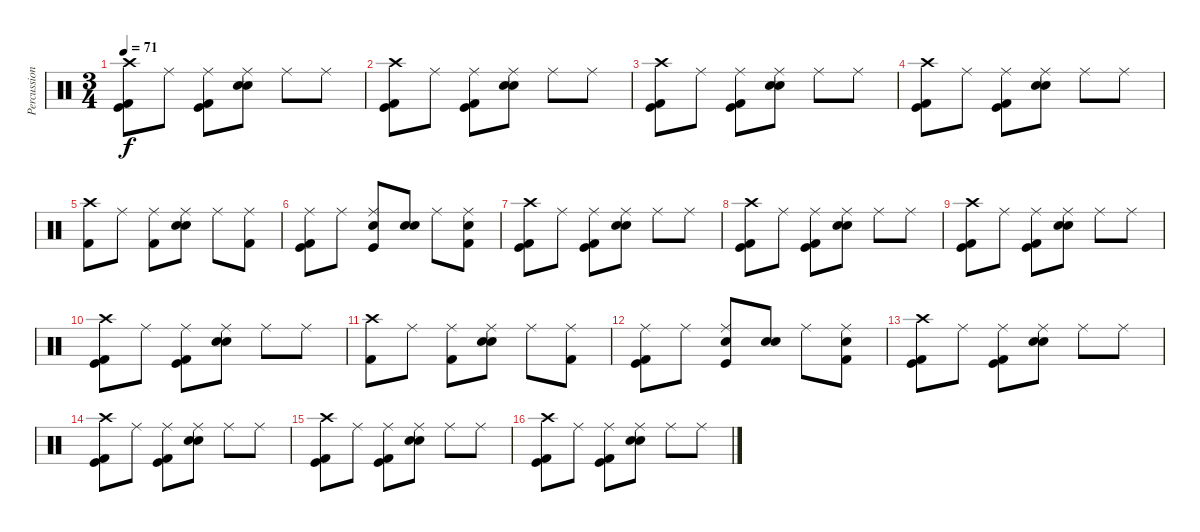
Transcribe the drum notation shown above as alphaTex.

\track ("Percussion" "Percussion") {instrument percussion}
\staff {score}
\articulation defaults
\ts (3 4)
\tempo 71
\clef neutral
\ks c
("Kick (hit)" "Kick (hit) 2" "Crash high (hit)").8{dy f} "Ride (middle)".8 ("Kick (hit) 2" "Kick (hit)" "Ride (middle)").8 ("Ride (middle)" "Electric Snare (hit)" "Snare (hit) 2").8 "Ride (middle)".8 "Ride (middle)".8 |
("Kick (hit)" "Kick (hit) 2" "Crash high (hit)").8 "Ride (middle)".8 ("Kick (hit) 2" "Kick (hit)" "Ride (middle)").8 ("Ride (middle)" "Electric Snare (hit)" "Snare (hit) 2").8 "Ride (middle)".8 "Ride (middle)".8 |
("Kick (hit)" "Kick (hit) 2" "Crash high (hit)").8 "Ride (middle)".8 ("Kick (hit) 2" "Kick (hit)" "Ride (middle)").8 ("Ride (middle)" "Electric Snare (hit)" "Snare (hit) 2").8 "Ride (middle)".8 "Ride (middle)".8 |
("Kick (hit)" "Kick (hit) 2" "Crash high (hit)").8 "Ride (middle)".8 ("Kick (hit) 2" "Kick (hit)" "Ride (middle)").8 ("Ride (middle)" "Electric Snare (hit)" "Snare (hit) 2").8 "Ride (middle)".8 "Ride (middle)".8 |
("Kick (hit) 2" "Crash high (hit)").8 "Ride (middle)".8 ("Kick (hit) 2" "Ride (middle)").8 ("Ride (middle)" "Electric Snare (hit)" "Snare (hit) 2").8 "Ride (middle)".8 ("Kick (hit) 2" "Ride (middle)").8 |
("Ride (middle)" "Kick (hit) 2" "Kick (hit)").8 "Ride (middle)".8 ("Kick (hit)" "Snare (hit) 2" "Ride (middle)").8 ("Electric Snare (hit)" "Snare (hit) 2").8 "Ride (middle)".8 ("Kick (hit) 2" "Snare (hit) 2" "Ride (middle)").8 |
("Kick (hit)" "Kick (hit) 2" "Crash high (hit)").8 "Ride (middle)".8 ("Kick (hit) 2" "Kick (hit)" "Ride (middle)").8 ("Ride (middle)" "Electric Snare (hit)" "Snare (hit) 2").8 "Ride (middle)".8 "Ride (middle)".8 |
("Kick (hit)" "Kick (hit) 2" "Crash high (hit)").8 "Ride (middle)".8 ("Kick (hit) 2" "Kick (hit)" "Ride (middle)").8 ("Ride (middle)" "Electric Snare (hit)" "Snare (hit) 2").8 "Ride (middle)".8 "Ride (middle)".8 |
("Kick (hit)" "Kick (hit) 2" "Crash high (hit)").8 "Ride (middle)".8 ("Kick (hit) 2" "Kick (hit)" "Ride (middle)").8 ("Ride (middle)" "Electric Snare (hit)" "Snare (hit) 2").8 "Ride (middle)".8 "Ride (middle)".8 |
("Kick (hit)" "Kick (hit) 2" "Crash high (hit)").8 "Ride (middle)".8 ("Kick (hit) 2" "Kick (hit)" "Ride (middle)").8 ("Ride (middle)" "Electric Snare (hit)" "Snare (hit) 2").8 "Ride (middle)".8 "Ride (middle)".8 |
("Kick (hit) 2" "Crash high (hit)").8 "Ride (middle)".8 ("Kick (hit) 2" "Ride (middle)").8 ("Ride (middle)" "Electric Snare (hit)" "Snare (hit) 2").8 "Ride (middle)".8 ("Kick (hit) 2" "Ride (middle)").8 |
("Ride (middle)" "Kick (hit) 2" "Kick (hit)").8 "Ride (middle)".8 ("Kick (hit)" "Snare (hit) 2" "Ride (middle)").8 ("Electric Snare (hit)" "Snare (hit) 2").8 "Ride (middle)".8 ("Kick (hit) 2" "Snare (hit) 2" "Ride (middle)").8 |
("Kick (hit)" "Kick (hit) 2" "Crash high (hit)").8 "Ride (middle)".8 ("Kick (hit) 2" "Kick (hit)" "Ride (middle)").8 ("Ride (middle)" "Electric Snare (hit)" "Snare (hit) 2").8 "Ride (middle)".8 "Ride (middle)".8 |
("Kick (hit)" "Kick (hit) 2" "Crash high (hit)").8 "Ride (middle)".8 ("Kick (hit) 2" "Kick (hit)" "Ride (middle)").8 ("Ride (middle)" "Electric Snare (hit)" "Snare (hit) 2").8 "Ride (middle)".8 "Ride (middle)".8 |
("Kick (hit)" "Kick (hit) 2" "Crash high (hit)").8 "Ride (middle)".8 ("Kick (hit) 2" "Kick (hit)" "Ride (middle)").8 ("Ride (middle)" "Electric Snare (hit)" "Snare (hit) 2").8 "Ride (middle)".8 "Ride (middle)".8 |
("Kick (hit)" "Kick (hit) 2" "Crash high (hit)").8 "Ride (middle)".8 ("Kick (hit) 2" "Kick (hit)" "Ride (middle)").8 ("Ride (middle)" "Electric Snare (hit)" "Snare (hit) 2").8 "Ride (middle)".8 "Ride (middle)".8
